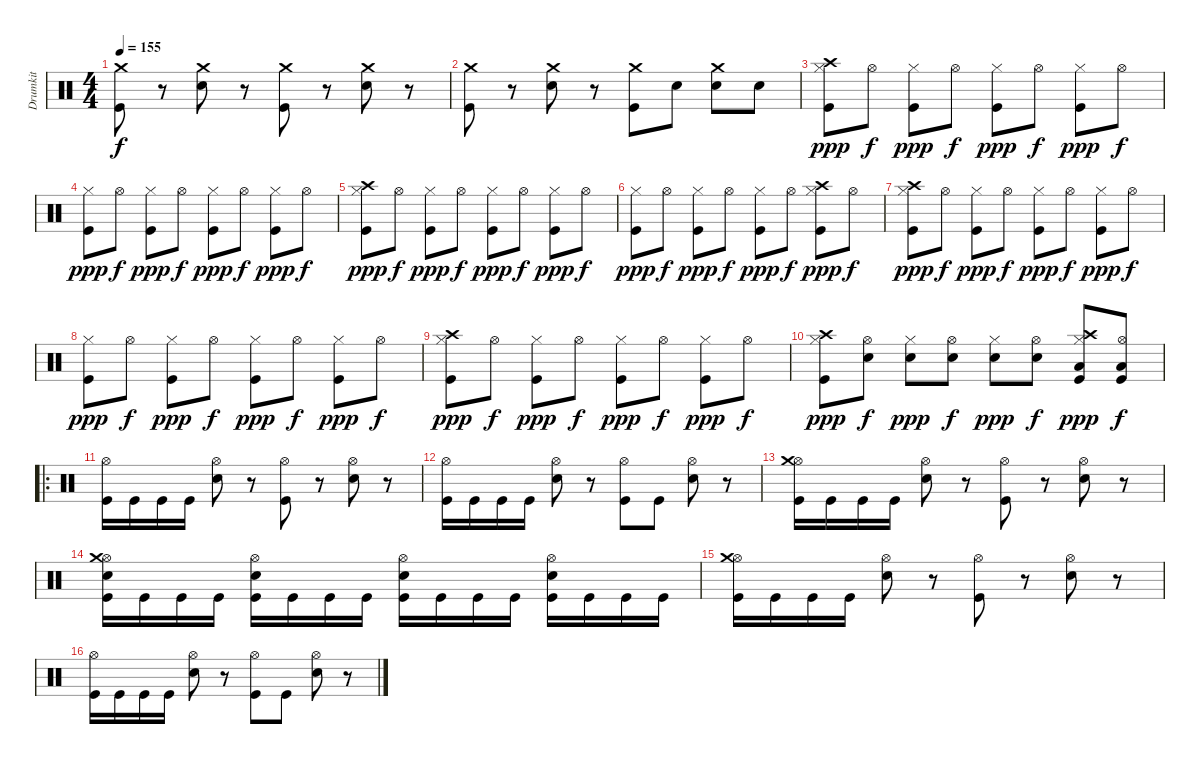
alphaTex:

\track ("Drumkit" "Drumkit") {instrument percussion}
\staff {score}
\articulation defaults
\ts (4 4)
\tempo 155
\clef neutral
\ks c
("Crash medium (hit)" "Kick (hit)").8{dy f} r.8 ("Crash medium (hit)" "Snare (hit) 2").8 r.8 ("Crash medium (hit)" "Kick (hit)").8 r.8 ("Crash medium (hit)" "Snare (hit) 2").8 r.8 |
("Crash medium (hit)" "Kick (hit)").8 r.8 ("Crash medium (hit)" "Snare (hit) 2").8 r.8 ("Crash medium (hit)" "Kick (hit)").8 "Snare (hit) 2".8 ("Crash medium (hit)" "Snare (hit) 2").8 "Snare (hit) 2".8 |
("Hi-Hat (closed)" "Crash high (hit)" "Kick (hit)").8{dy ppp} "Hi-Hat (open)".8{dy f} ("Hi-Hat (closed)" "Kick (hit)").8{dy ppp} "Hi-Hat (open)".8{dy f} ("Hi-Hat (closed)" "Kick (hit)").8{dy ppp} "Hi-Hat (open)".8{dy f} ("Hi-Hat (closed)" "Kick (hit)").8{dy ppp} "Hi-Hat (open)".8{dy f} |
("Hi-Hat (closed)" "Kick (hit)").8{dy ppp} "Hi-Hat (open)".8{dy f} ("Hi-Hat (closed)" "Kick (hit)").8{dy ppp} "Hi-Hat (open)".8{dy f} ("Hi-Hat (closed)" "Kick (hit)").8{dy ppp} "Hi-Hat (open)".8{dy f} ("Hi-Hat (closed)" "Kick (hit)").8{dy ppp} "Hi-Hat (open)".8{dy f} |
("Hi-Hat (closed)" "Crash high (hit)" "Kick (hit)").8{dy ppp} "Hi-Hat (open)".8{dy f} ("Hi-Hat (closed)" "Kick (hit)").8{dy ppp} "Hi-Hat (open)".8{dy f} ("Hi-Hat (closed)" "Kick (hit)").8{dy ppp} "Hi-Hat (open)".8{dy f} ("Hi-Hat (closed)" "Kick (hit)").8{dy ppp} "Hi-Hat (open)".8{dy f} |
("Hi-Hat (closed)" "Kick (hit)").8{dy ppp} "Hi-Hat (open)".8{dy f} ("Hi-Hat (closed)" "Kick (hit)").8{dy ppp} "Hi-Hat (open)".8{dy f} ("Hi-Hat (closed)" "Kick (hit)").8{dy ppp} "Hi-Hat (open)".8{dy f} ("Hi-Hat (closed)" "Crash high (hit)" "Kick (hit)").8{dy ppp} "Hi-Hat (open)".8{dy f} |
("Hi-Hat (closed)" "Crash high (hit)" "Kick (hit)").8{dy ppp} "Hi-Hat (open)".8{dy f} ("Hi-Hat (closed)" "Kick (hit)").8{dy ppp} "Hi-Hat (open)".8{dy f} ("Hi-Hat (closed)" "Kick (hit)").8{dy ppp} "Hi-Hat (open)".8{dy f} ("Hi-Hat (closed)" "Kick (hit)").8{dy ppp} "Hi-Hat (open)".8{dy f} |
("Hi-Hat (closed)" "Kick (hit)").8{dy ppp} "Hi-Hat (open)".8{dy f} ("Hi-Hat (closed)" "Kick (hit)").8{dy ppp} "Hi-Hat (open)".8{dy f} ("Hi-Hat (closed)" "Kick (hit)").8{dy ppp} "Hi-Hat (open)".8{dy f} ("Hi-Hat (closed)" "Kick (hit)").8{dy ppp} "Hi-Hat (open)".8{dy f} |
("Hi-Hat (closed)" "Crash high (hit)" "Kick (hit)").8{dy ppp} "Hi-Hat (open)".8{dy f} ("Hi-Hat (closed)" "Kick (hit)").8{dy ppp} "Hi-Hat (open)".8{dy f} ("Hi-Hat (closed)" "Kick (hit)").8{dy ppp} "Hi-Hat (open)".8{dy f} ("Hi-Hat (closed)" "Kick (hit)").8{dy ppp} "Hi-Hat (open)".8{dy f} |
("Hi-Hat (closed)" "Crash high (hit)" "Kick (hit)").8{dy ppp} ("Hi-Hat (open)" "Snare (hit) 2").8{dy f} ("Hi-Hat (closed)" "Snare (hit) 2").8{dy ppp} ("Hi-Hat (open)" "Snare (hit) 2").8{dy f} ("Hi-Hat (closed)" "Snare (hit) 2").8{dy ppp} ("Hi-Hat (open)" "Snare (hit) 2").8{dy f} ("Hi-Hat (closed)" "Crash high (hit)" "Low Floor Tom (hit)" "Kick (hit)").8{dy ppp} ("Hi-Hat (open)" "Low Floor Tom (hit)" "Kick (hit)").8{dy f} |
\ro
("Hi-Hat (open)" "Kick (hit)").16 "Kick (hit)".16 "Kick (hit)".16 "Kick (hit)".16 ("Hi-Hat (open)" "Snare (hit) 2").8 r.8 ("Hi-Hat (open)" "Kick (hit)").8 r.8 ("Hi-Hat (open)" "Snare (hit) 2").8 r.8 |
("Hi-Hat (open)" "Kick (hit)").16 "Kick (hit)".16 "Kick (hit)".16 "Kick (hit)".16 ("Hi-Hat (open)" "Snare (hit) 2").8 r.8 ("Hi-Hat (open)" "Kick (hit)").8 "Kick (hit)".8 ("Hi-Hat (open)" "Snare (hit) 2").8 r.8 |
("Hi-Hat (open)" "Crash medium (hit)" "Kick (hit)").16 "Kick (hit)".16 "Kick (hit)".16 "Kick (hit)".16 ("Hi-Hat (open)" "Snare (hit) 2").8 r.8 ("Hi-Hat (open)" "Kick (hit)").8 r.8 ("Hi-Hat (open)" "Snare (hit) 2").8 r.8 |
("Hi-Hat (open)" "Crash medium (hit)" "Snare (hit) 2" "Kick (hit)").16 "Kick (hit)".16 "Kick (hit)".16 "Kick (hit)".16 ("Hi-Hat (open)" "Snare (hit) 2" "Kick (hit)").16 "Kick (hit)".16 "Kick (hit)".16 "Kick (hit)".16 ("Hi-Hat (open)" "Snare (hit) 2" "Kick (hit)").16 "Kick (hit)".16 "Kick (hit)".16 "Kick (hit)".16 ("Hi-Hat (open)" "Snare (hit) 2" "Kick (hit)").16 "Kick (hit)".16 "Kick (hit)".16 "Kick (hit)".16 |
("Hi-Hat (open)" "Crash medium (hit)" "Kick (hit)").16 "Kick (hit)".16 "Kick (hit)".16 "Kick (hit)".16 ("Hi-Hat (open)" "Snare (hit) 2").8 r.8 ("Hi-Hat (open)" "Kick (hit)").8 r.8 ("Hi-Hat (open)" "Snare (hit) 2").8 r.8 |
("Hi-Hat (open)" "Kick (hit)").16 "Kick (hit)".16 "Kick (hit)".16 "Kick (hit)".16 ("Hi-Hat (open)" "Snare (hit) 2").8 r.8 ("Hi-Hat (open)" "Kick (hit)").8 "Kick (hit)".8 ("Hi-Hat (open)" "Snare (hit) 2").8 r.8
